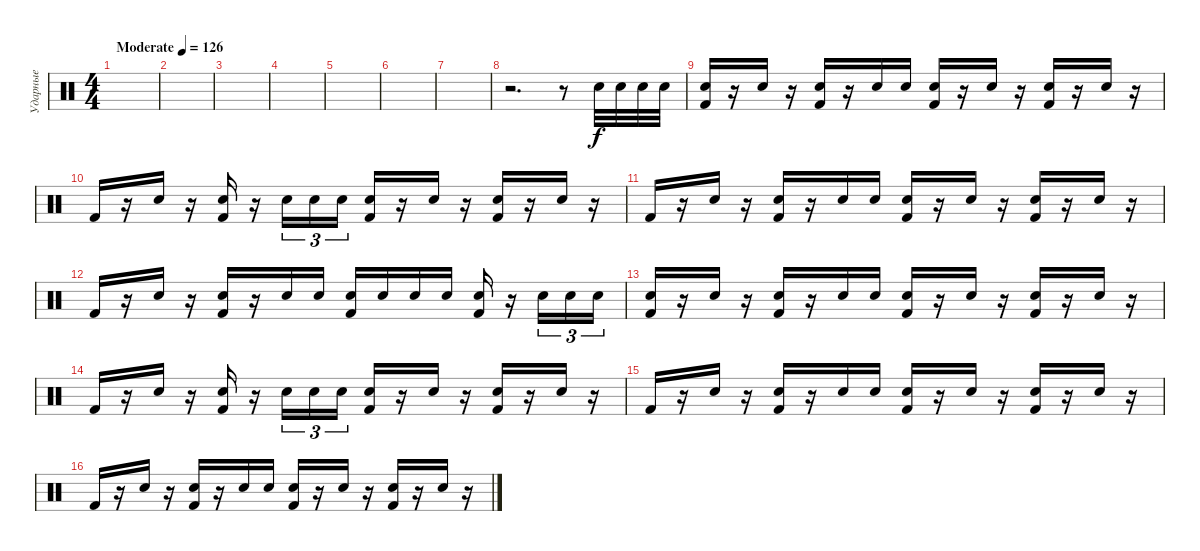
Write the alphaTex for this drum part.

\track ("Ударные" "Ударные") {instrument percussion}
\staff {score}
\articulation defaults
\ts (4 4)
\tempo (126 "Moderate")
\clef neutral
\ks c
|
|
|
|
|
|
|
r.2{d} r.8 "Electric Snare (hit)".32 "Electric Snare (hit)".32 "Electric Snare (hit)".32 "Electric Snare (hit)".32 |
("Electric Snare (hit)" "Kick (hit) 2").16 r.16 "Electric Snare (hit)".16 r.16 ("Electric Snare (hit)" "Kick (hit) 2").16 r.16 "Electric Snare (hit)".16 "Electric Snare (hit)".16 ("Electric Snare (hit)" "Kick (hit) 2").16 r.16 "Electric Snare (hit)".16 r.16 ("Electric Snare (hit)" "Kick (hit) 2").16 r.16 "Electric Snare (hit)".16 r.16 |
"Kick (hit) 2".16 r.16 "Electric Snare (hit)".16 r.16 ("Electric Snare (hit)" "Kick (hit) 2").16 r.16 "Electric Snare (hit)".16{tu (3 2)} "Electric Snare (hit)".16{tu (3 2)} "Electric Snare (hit)".16{tu (3 2)} ("Electric Snare (hit)" "Kick (hit) 2").16 r.16 "Electric Snare (hit)".16 r.16 ("Electric Snare (hit)" "Kick (hit) 2").16 r.16 "Electric Snare (hit)".16 r.16 |
"Kick (hit) 2".16 r.16 "Electric Snare (hit)".16 r.16 ("Electric Snare (hit)" "Kick (hit) 2").16 r.16 "Electric Snare (hit)".16 "Electric Snare (hit)".16 ("Electric Snare (hit)" "Kick (hit) 2").16 r.16 "Electric Snare (hit)".16 r.16 ("Electric Snare (hit)" "Kick (hit) 2").16 r.16 "Electric Snare (hit)".16 r.16 |
"Kick (hit) 2".16 r.16 "Electric Snare (hit)".16 r.16 ("Electric Snare (hit)" "Kick (hit) 2").16 r.16 "Electric Snare (hit)".16 "Electric Snare (hit)".16 ("Electric Snare (hit)" "Kick (hit) 2").16 "Electric Snare (hit)".16 "Electric Snare (hit)".16 "Electric Snare (hit)".16 ("Electric Snare (hit)" "Kick (hit) 2").16 r.16 "Electric Snare (hit)".16{tu (3 2)} "Electric Snare (hit)".16{tu (3 2)} "Electric Snare (hit)".16{tu (3 2)} |
("Electric Snare (hit)" "Kick (hit) 2").16 r.16 "Electric Snare (hit)".16 r.16 ("Electric Snare (hit)" "Kick (hit) 2").16 r.16 "Electric Snare (hit)".16 "Electric Snare (hit)".16 ("Electric Snare (hit)" "Kick (hit) 2").16 r.16 "Electric Snare (hit)".16 r.16 ("Electric Snare (hit)" "Kick (hit) 2").16 r.16 "Electric Snare (hit)".16 r.16 |
"Kick (hit) 2".16 r.16 "Electric Snare (hit)".16 r.16 ("Electric Snare (hit)" "Kick (hit) 2").16 r.16 "Electric Snare (hit)".16{tu (3 2)} "Electric Snare (hit)".16{tu (3 2)} "Electric Snare (hit)".16{tu (3 2)} ("Electric Snare (hit)" "Kick (hit) 2").16 r.16 "Electric Snare (hit)".16 r.16 ("Electric Snare (hit)" "Kick (hit) 2").16 r.16 "Electric Snare (hit)".16 r.16 |
"Kick (hit) 2".16 r.16 "Electric Snare (hit)".16 r.16 ("Electric Snare (hit)" "Kick (hit) 2").16 r.16 "Electric Snare (hit)".16 "Electric Snare (hit)".16 ("Electric Snare (hit)" "Kick (hit) 2").16 r.16 "Electric Snare (hit)".16 r.16 ("Electric Snare (hit)" "Kick (hit) 2").16 r.16 "Electric Snare (hit)".16 r.16 |
"Kick (hit) 2".16 r.16 "Electric Snare (hit)".16 r.16 ("Electric Snare (hit)" "Kick (hit) 2").16 r.16 "Electric Snare (hit)".16 "Electric Snare (hit)".16 ("Electric Snare (hit)" "Kick (hit) 2").16 r.16 "Electric Snare (hit)".16 r.16 ("Electric Snare (hit)" "Kick (hit) 2").16 r.16 "Electric Snare (hit)".16 r.16
